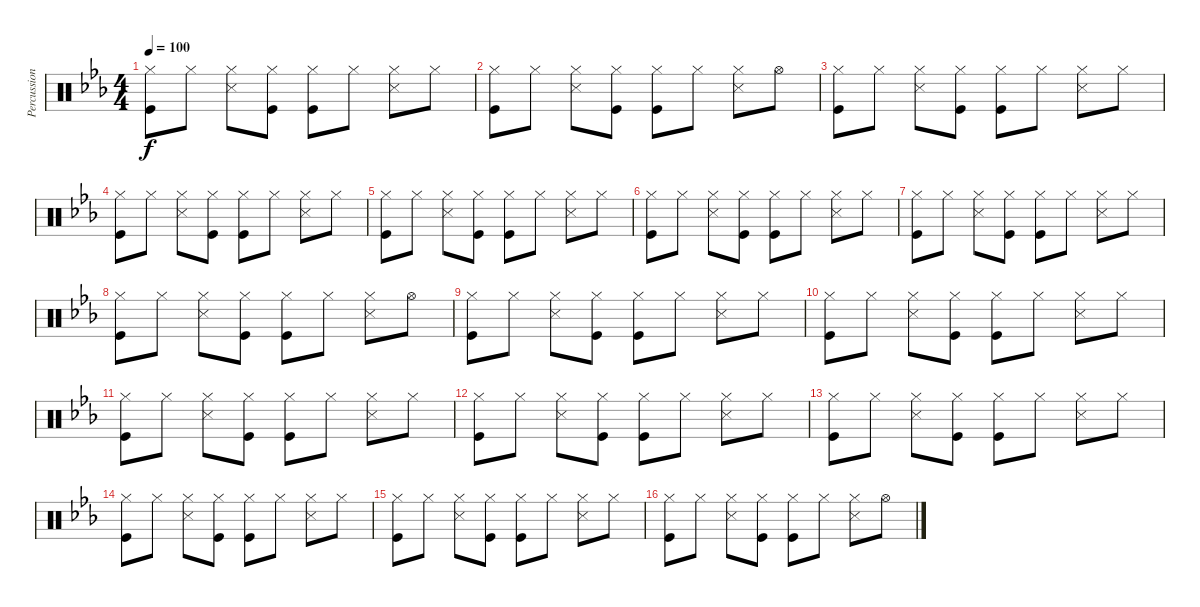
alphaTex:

\track ("Percussion" "Percussion") {instrument percussion}
\staff {score}
\articulation defaults
\ts (4 4)
\tempo 100
\clef neutral
\ks eb
("Hi-Hat (closed)" "Kick (hit)").8{dy f} "Hi-Hat (closed)".8 ("Hi-Hat (closed)" "Snare (side stick) 3").8 ("Hi-Hat (closed)" "Kick (hit)").8 ("Hi-Hat (closed)" "Kick (hit)").8 "Hi-Hat (closed)".8 ("Hi-Hat (closed)" "Snare (side stick) 3").8 "Hi-Hat (closed)".8 |
("Hi-Hat (closed)" "Kick (hit)").8 "Hi-Hat (closed)".8 ("Hi-Hat (closed)" "Snare (side stick) 3").8 ("Hi-Hat (closed)" "Kick (hit)").8 ("Hi-Hat (closed)" "Kick (hit)").8 "Hi-Hat (closed)".8 ("Hi-Hat (closed)" "Snare (side stick) 3").8 "Hi-Hat (open)".8 |
("Hi-Hat (closed)" "Kick (hit)").8 "Hi-Hat (closed)".8 ("Hi-Hat (closed)" "Snare (side stick) 3").8 ("Hi-Hat (closed)" "Kick (hit)").8 ("Hi-Hat (closed)" "Kick (hit)").8 "Hi-Hat (closed)".8 ("Hi-Hat (closed)" "Snare (side stick) 3").8 "Hi-Hat (closed)".8 |
("Hi-Hat (closed)" "Kick (hit)").8 "Hi-Hat (closed)".8 ("Hi-Hat (closed)" "Snare (side stick) 3").8 ("Hi-Hat (closed)" "Kick (hit)").8 ("Hi-Hat (closed)" "Kick (hit)").8 "Hi-Hat (closed)".8 ("Hi-Hat (closed)" "Snare (side stick) 3").8 "Hi-Hat (closed)".8 |
("Hi-Hat (closed)" "Kick (hit)").8 "Hi-Hat (closed)".8 ("Hi-Hat (closed)" "Snare (side stick) 3").8 ("Hi-Hat (closed)" "Kick (hit)").8 ("Hi-Hat (closed)" "Kick (hit)").8 "Hi-Hat (closed)".8 ("Hi-Hat (closed)" "Snare (side stick) 3").8 "Hi-Hat (closed)".8 |
("Hi-Hat (closed)" "Kick (hit)").8 "Hi-Hat (closed)".8 ("Hi-Hat (closed)" "Snare (side stick) 3").8 ("Hi-Hat (closed)" "Kick (hit)").8 ("Hi-Hat (closed)" "Kick (hit)").8 "Hi-Hat (closed)".8 ("Hi-Hat (closed)" "Snare (side stick) 3").8 "Hi-Hat (closed)".8 |
("Hi-Hat (closed)" "Kick (hit)").8 "Hi-Hat (closed)".8 ("Hi-Hat (closed)" "Snare (side stick) 3").8 ("Hi-Hat (closed)" "Kick (hit)").8 ("Hi-Hat (closed)" "Kick (hit)").8 "Hi-Hat (closed)".8 ("Hi-Hat (closed)" "Snare (side stick) 3").8 "Hi-Hat (closed)".8 |
("Hi-Hat (closed)" "Kick (hit)").8 "Hi-Hat (closed)".8 ("Hi-Hat (closed)" "Snare (side stick) 3").8 ("Hi-Hat (closed)" "Kick (hit)").8 ("Hi-Hat (closed)" "Kick (hit)").8 "Hi-Hat (closed)".8 ("Hi-Hat (closed)" "Snare (side stick) 3").8 "Hi-Hat (open)".8 |
("Hi-Hat (closed)" "Kick (hit)").8 "Hi-Hat (closed)".8 ("Hi-Hat (closed)" "Snare (side stick) 3").8 ("Hi-Hat (closed)" "Kick (hit)").8 ("Hi-Hat (closed)" "Kick (hit)").8 "Hi-Hat (closed)".8 ("Hi-Hat (closed)" "Snare (side stick) 3").8 "Hi-Hat (closed)".8 |
("Hi-Hat (closed)" "Kick (hit)").8 "Hi-Hat (closed)".8 ("Hi-Hat (closed)" "Snare (side stick) 3").8 ("Hi-Hat (closed)" "Kick (hit)").8 ("Hi-Hat (closed)" "Kick (hit)").8 "Hi-Hat (closed)".8 ("Hi-Hat (closed)" "Snare (side stick) 3").8 "Hi-Hat (closed)".8 |
("Hi-Hat (closed)" "Kick (hit)").8 "Hi-Hat (closed)".8 ("Hi-Hat (closed)" "Snare (side stick) 3").8 ("Hi-Hat (closed)" "Kick (hit)").8 ("Hi-Hat (closed)" "Kick (hit)").8 "Hi-Hat (closed)".8 ("Hi-Hat (closed)" "Snare (side stick) 3").8 "Hi-Hat (closed)".8 |
("Hi-Hat (closed)" "Kick (hit)").8 "Hi-Hat (closed)".8 ("Hi-Hat (closed)" "Snare (side stick) 3").8 ("Hi-Hat (closed)" "Kick (hit)").8 ("Hi-Hat (closed)" "Kick (hit)").8 "Hi-Hat (closed)".8 ("Hi-Hat (closed)" "Snare (side stick) 3").8 "Hi-Hat (closed)".8 |
("Hi-Hat (closed)" "Kick (hit)").8 "Hi-Hat (closed)".8 ("Hi-Hat (closed)" "Snare (side stick) 3").8 ("Hi-Hat (closed)" "Kick (hit)").8 ("Hi-Hat (closed)" "Kick (hit)").8 "Hi-Hat (closed)".8 ("Hi-Hat (closed)" "Snare (side stick) 3").8 "Hi-Hat (closed)".8 |
("Hi-Hat (closed)" "Kick (hit)").8 "Hi-Hat (closed)".8 ("Hi-Hat (closed)" "Snare (side stick) 3").8 ("Hi-Hat (closed)" "Kick (hit)").8 ("Hi-Hat (closed)" "Kick (hit)").8 "Hi-Hat (closed)".8 ("Hi-Hat (closed)" "Snare (side stick) 3").8 "Hi-Hat (closed)".8 |
("Hi-Hat (closed)" "Kick (hit)").8 "Hi-Hat (closed)".8 ("Hi-Hat (closed)" "Snare (side stick) 3").8 ("Hi-Hat (closed)" "Kick (hit)").8 ("Hi-Hat (closed)" "Kick (hit)").8 "Hi-Hat (closed)".8 ("Hi-Hat (closed)" "Snare (side stick) 3").8 "Hi-Hat (closed)".8 |
("Hi-Hat (closed)" "Kick (hit)").8 "Hi-Hat (closed)".8 ("Hi-Hat (closed)" "Snare (side stick) 3").8 ("Hi-Hat (closed)" "Kick (hit)").8 ("Hi-Hat (closed)" "Kick (hit)").8 "Hi-Hat (closed)".8 ("Hi-Hat (closed)" "Snare (side stick) 3").8 "Hi-Hat (open)".8
